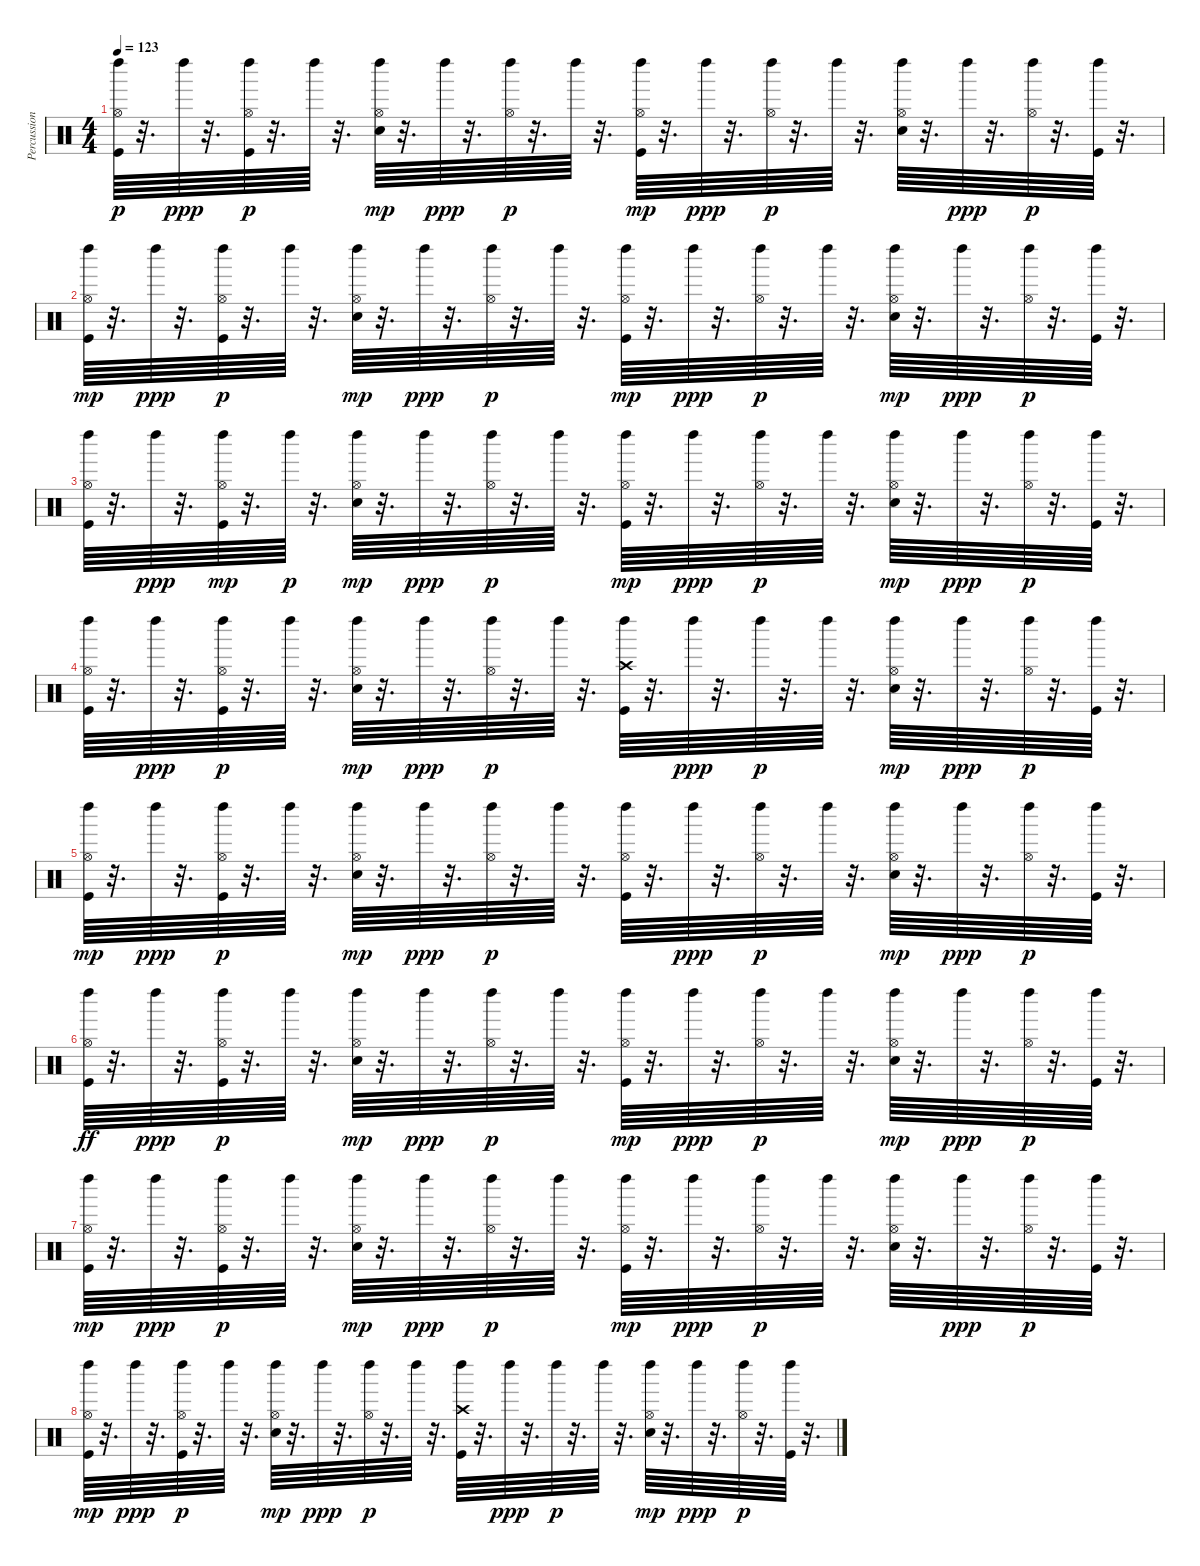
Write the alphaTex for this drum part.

\track ("Percussion" "Percussion") {instrument percussion}
\staff {score}
\articulation defaults
\ts (4 4)
\tempo 123
\clef neutral
\ks c
("Left Maraca (hit)" "Kick (hit)" "Hi-Hat (open)").64{dy p} r.32{d} "Left Maraca (hit)".64{dy ppp} r.32{d} ("Kick (hit)" "Hi-Hat (open)" "Left Maraca (hit)").64{dy p} r.32{d} "Left Maraca (hit)".64 r.32{d} ("Electric Snare (hit)" "Hi-Hat (open)" "Left Maraca (hit)").64{dy mp} r.32{d} "Left Maraca (hit)".64{dy ppp} r.32{d} ("Hi-Hat (open)" "Left Maraca (hit)").64{dy p} r.32{d} "Left Maraca (hit)".64 r.32{d} ("Kick (hit)" "Hi-Hat (open)" "Left Maraca (hit)").64{dy mp} r.32{d} "Left Maraca (hit)".64{dy ppp} r.32{d} ("Hi-Hat (open)" "Left Maraca (hit)").64{dy p} r.32{d} "Left Maraca (hit)".64 r.32{d} ("Left Maraca (hit)" "Electric Snare (hit)" "Hi-Hat (open)").64 r.32{d} "Left Maraca (hit)".64{dy ppp} r.32{d} ("Hi-Hat (open)" "Left Maraca (hit)").64{dy p} r.32{d} ("Kick (hit)" "Left Maraca (hit)").64 r.32{d} |
("Kick (hit)" "Hi-Hat (open)" "Left Maraca (hit)").64{dy mp} r.32{d} "Left Maraca (hit)".64{dy ppp} r.32{d} ("Left Maraca (hit)" "Kick (hit)" "Hi-Hat (open)").64{dy p} r.32{d} "Left Maraca (hit)".64 r.32{d} ("Electric Snare (hit)" "Hi-Hat (open)" "Left Maraca (hit)").64{dy mp} r.32{d} "Left Maraca (hit)".64{dy ppp} r.32{d} ("Hi-Hat (open)" "Left Maraca (hit)").64{dy p} r.32{d} "Left Maraca (hit)".64 r.32{d} ("Left Maraca (hit)" "Kick (hit)" "Hi-Hat (open)").64{dy mp} r.32{d} "Left Maraca (hit)".64{dy ppp} r.32{d} ("Hi-Hat (open)" "Left Maraca (hit)").64{dy p} r.32{d} "Left Maraca (hit)".64 r.32{d} ("Electric Snare (hit)" "Hi-Hat (open)" "Left Maraca (hit)").64{dy mp} r.32{d} "Left Maraca (hit)".64{dy ppp} r.32{d} ("Hi-Hat (open)" "Left Maraca (hit)").64{dy p} r.32{d} ("Kick (hit)" "Left Maraca (hit)").64 r.32{d} |
("Left Maraca (hit)" "Kick (hit)" "Hi-Hat (open)").64 r.32{d} "Left Maraca (hit)".64{dy ppp} r.32{d} ("Hi-Hat (open)" "Left Maraca (hit)" "Kick (hit)").64{dy mp} r.32{d} "Left Maraca (hit)".64{dy p} r.32{d} ("Electric Snare (hit)" "Hi-Hat (open)" "Left Maraca (hit)").64{dy mp} r.32{d} "Left Maraca (hit)".64{dy ppp} r.32{d} ("Hi-Hat (open)" "Left Maraca (hit)").64{dy p} r.32{d} "Left Maraca (hit)".64 r.32{d} ("Kick (hit)" "Hi-Hat (open)" "Left Maraca (hit)").64{dy mp} r.32{d} "Left Maraca (hit)".64{dy ppp} r.32{d} ("Hi-Hat (open)" "Left Maraca (hit)").64{dy p} r.32{d} "Left Maraca (hit)".64 r.32{d} ("Electric Snare (hit)" "Hi-Hat (open)" "Left Maraca (hit)").64{dy mp} r.32{d} "Left Maraca (hit)".64{dy ppp} r.32{d} ("Hi-Hat (open)" "Left Maraca (hit)").64{dy p} r.32{d} ("Kick (hit)" "Left Maraca (hit)").64 r.32{d} |
("Left Maraca (hit)" "Kick (hit)" "Hi-Hat (open)").64 r.32{d} "Left Maraca (hit)".64{dy ppp} r.32{d} ("Kick (hit)" "Hi-Hat (open)" "Left Maraca (hit)").64{dy p} r.32{d} "Left Maraca (hit)".64 r.32{d} ("Electric Snare (hit)" "Hi-Hat (open)" "Left Maraca (hit)").64{dy mp} r.32{d} "Left Maraca (hit)".64{dy ppp} r.32{d} ("Hi-Hat (open)" "Left Maraca (hit)").64{dy p} r.32{d} "Left Maraca (hit)".64 r.32{d} ("Left Maraca (hit)" "Kick (hit)" "Crash high (hit)").64 r.32{d} "Left Maraca (hit)".64{dy ppp} r.32{d} "Left Maraca (hit)".64{dy p} r.32{d} "Left Maraca (hit)".64 r.32{d} ("Electric Snare (hit)" "Hi-Hat (open)" "Left Maraca (hit)").64{dy mp} r.32{d} "Left Maraca (hit)".64{dy ppp} r.32{d} ("Hi-Hat (open)" "Left Maraca (hit)").64{dy p} r.32{d} ("Kick (hit)" "Left Maraca (hit)").64 r.32{d} |
("Kick (hit)" "Hi-Hat (open)" "Left Maraca (hit)").64{dy mp} r.32{d} "Left Maraca (hit)".64{dy ppp} r.32{d} ("Kick (hit)" "Hi-Hat (open)" "Left Maraca (hit)").64{dy p} r.32{d} "Left Maraca (hit)".64 r.32{d} ("Electric Snare (hit)" "Hi-Hat (open)" "Left Maraca (hit)").64{dy mp} r.32{d} "Left Maraca (hit)".64{dy ppp} r.32{d} ("Hi-Hat (open)" "Left Maraca (hit)").64{dy p} r.32{d} "Left Maraca (hit)".64 r.32{d} ("Left Maraca (hit)" "Kick (hit)" "Hi-Hat (open)").64 r.32{d} "Left Maraca (hit)".64{dy ppp} r.32{d} ("Hi-Hat (open)" "Left Maraca (hit)").64{dy p} r.32{d} "Left Maraca (hit)".64 r.32{d} ("Electric Snare (hit)" "Hi-Hat (open)" "Left Maraca (hit)").64{dy mp} r.32{d} "Left Maraca (hit)".64{dy ppp} r.32{d} ("Hi-Hat (open)" "Left Maraca (hit)").64{dy p} r.32{d} ("Kick (hit)" "Left Maraca (hit)").64 r.32{d} |
("Hi-Hat (open)" "Left Maraca (hit)" "Kick (hit)").64{dy ff} r.32{d} "Left Maraca (hit)".64{dy ppp} r.32{d} ("Kick (hit)" "Hi-Hat (open)" "Left Maraca (hit)").64{dy p} r.32{d} "Left Maraca (hit)".64 r.32{d} ("Electric Snare (hit)" "Hi-Hat (open)" "Left Maraca (hit)").64{dy mp} r.32{d} "Left Maraca (hit)".64{dy ppp} r.32{d} ("Hi-Hat (open)" "Left Maraca (hit)").64{dy p} r.32{d} "Left Maraca (hit)".64 r.32{d} ("Left Maraca (hit)" "Kick (hit)" "Hi-Hat (open)").64{dy mp} r.32{d} "Left Maraca (hit)".64{dy ppp} r.32{d} ("Hi-Hat (open)" "Left Maraca (hit)").64{dy p} r.32{d} "Left Maraca (hit)".64 r.32{d} ("Electric Snare (hit)" "Hi-Hat (open)" "Left Maraca (hit)").64{dy mp} r.32{d} "Left Maraca (hit)".64{dy ppp} r.32{d} ("Hi-Hat (open)" "Left Maraca (hit)").64{dy p} r.32{d} ("Kick (hit)" "Left Maraca (hit)").64 r.32{d} |
("Kick (hit)" "Hi-Hat (open)" "Left Maraca (hit)").64{dy mp} r.32{d} "Left Maraca (hit)".64{dy ppp} r.32{d} ("Kick (hit)" "Hi-Hat (open)" "Left Maraca (hit)").64{dy p} r.32{d} "Left Maraca (hit)".64 r.32{d} ("Electric Snare (hit)" "Hi-Hat (open)" "Left Maraca (hit)").64{dy mp} r.32{d} "Left Maraca (hit)".64{dy ppp} r.32{d} ("Hi-Hat (open)" "Left Maraca (hit)").64{dy p} r.32{d} "Left Maraca (hit)".64 r.32{d} ("Kick (hit)" "Hi-Hat (open)" "Left Maraca (hit)").64{dy mp} r.32{d} "Left Maraca (hit)".64{dy ppp} r.32{d} ("Hi-Hat (open)" "Left Maraca (hit)").64{dy p} r.32{d} "Left Maraca (hit)".64 r.32{d} ("Left Maraca (hit)" "Electric Snare (hit)" "Hi-Hat (open)").64 r.32{d} "Left Maraca (hit)".64{dy ppp} r.32{d} ("Hi-Hat (open)" "Left Maraca (hit)").64{dy p} r.32{d} ("Kick (hit)" "Left Maraca (hit)").64 r.32{d} |
("Kick (hit)" "Hi-Hat (open)" "Left Maraca (hit)").64{dy mp} r.32{d} "Left Maraca (hit)".64{dy ppp} r.32{d} ("Kick (hit)" "Hi-Hat (open)" "Left Maraca (hit)").64{dy p} r.32{d} "Left Maraca (hit)".64 r.32{d} ("Electric Snare (hit)" "Hi-Hat (open)" "Left Maraca (hit)").64{dy mp} r.32{d} "Left Maraca (hit)".64{dy ppp} r.32{d} ("Hi-Hat (open)" "Left Maraca (hit)").64{dy p} r.32{d} "Left Maraca (hit)".64 r.32{d} ("Left Maraca (hit)" "Kick (hit)" "Crash high (hit)").64 r.32{d} "Left Maraca (hit)".64{dy ppp} r.32{d} "Left Maraca (hit)".64{dy p} r.32{d} "Left Maraca (hit)".64 r.32{d} ("Electric Snare (hit)" "Hi-Hat (open)" "Left Maraca (hit)").64{dy mp} r.32{d} "Left Maraca (hit)".64{dy ppp} r.32{d} ("Hi-Hat (open)" "Left Maraca (hit)").64{dy p} r.32{d} ("Kick (hit)" "Left Maraca (hit)").64 r.32{d}
